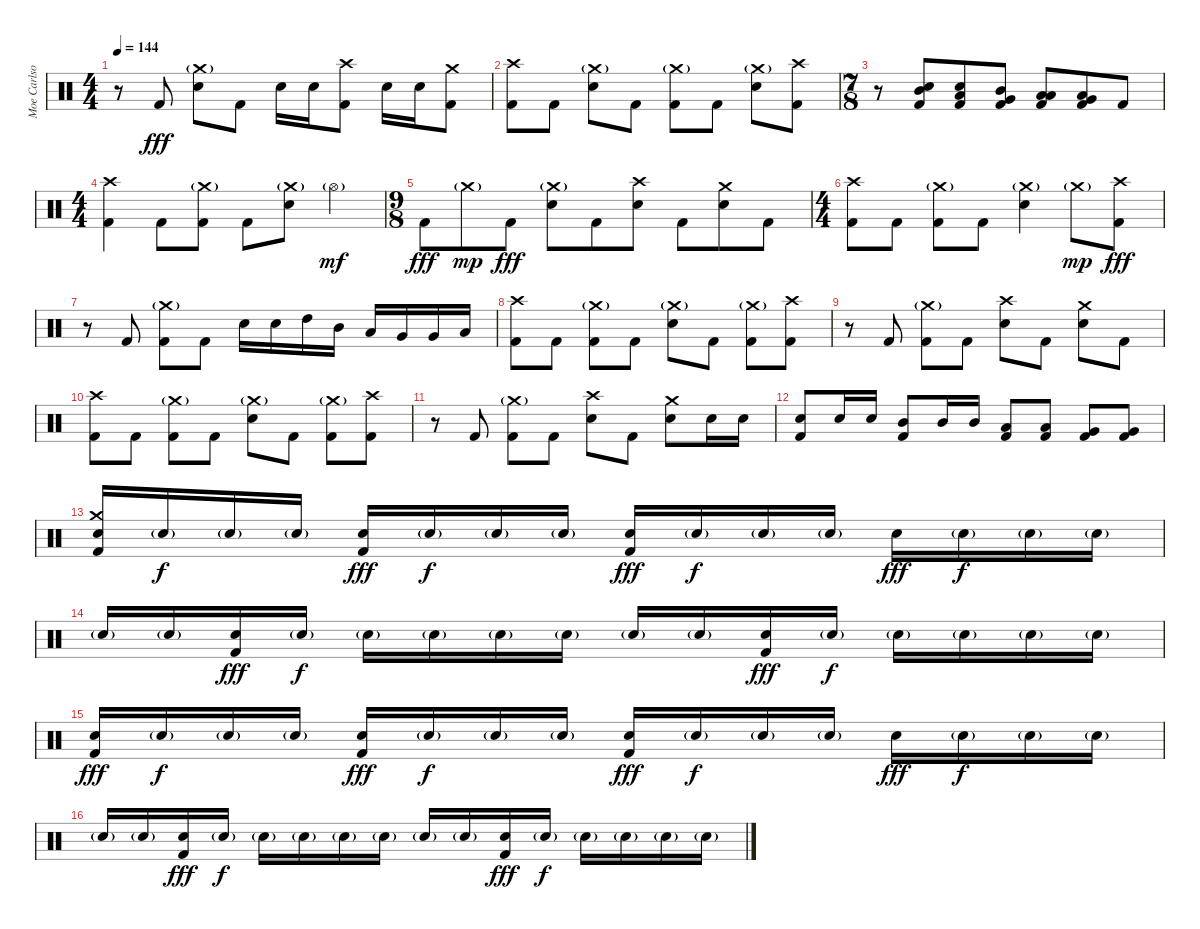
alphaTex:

\track ("Moe Carlson" "Moe Carlso") {instrument percussion}
\staff {score}
\articulation defaults
\ts (4 4)
\tempo 144
\clef neutral
\ks c
r.8{dy fff} "Kick (hit) 2".8 ("Crash medium (hit)"{g} "Electric Snare (hit)").8 "Kick (hit) 2".8 "Electric Snare (hit)".16 "Electric Snare (hit)".16 ("Crash high (hit)" "Kick (hit) 2").8 "Electric Snare (hit)".16 "Electric Snare (hit)".16 ("Crash medium (hit)" "Kick (hit) 2").8 |
("Crash high (hit)" "Kick (hit) 2").8 "Kick (hit) 2".8 ("Crash medium (hit)"{g} "Electric Snare (hit)").8 "Kick (hit) 2".8 ("Crash medium (hit)"{g} "Kick (hit) 2").8 "Kick (hit) 2".8 ("Crash medium (hit)"{g} "Electric Snare (hit)").8 ("Crash high (hit)" "Kick (hit) 2").8 |
\ts (7 8)
r.8 ("Electric Snare (hit)" "Mid Tom (hit)" "Kick (hit) 2").8 ("Electric Snare (hit)" "Low Tom (hit)" "Kick (hit) 2").8 ("Mid Tom (hit)" "Very Low Tom (hit)" "Kick (hit) 2").8 ("Low Tom (hit)" "Low Floor Tom (hit)" "Kick (hit) 2").8 ("Very Low Tom (hit)" "Low Floor Tom (hit)" "Kick (hit) 2").8 "Kick (hit) 2".8 |
\ts (4 4)
("Crash high (hit)" "Kick (hit) 2").4 "Kick (hit) 2".8 ("Crash medium (hit)"{g} "Kick (hit) 2").8 "Kick (hit) 2".8 ("Crash medium (hit)"{g} "Electric Snare (hit)").8 "Hi-Hat (open)"{g}.4{dy mf} |
\ts (9 8)
"Kick (hit) 2".8{dy fff} "Crash medium (hit)"{g}.8{dy mp} "Kick (hit) 2".8{dy fff} ("Crash medium (hit)"{g} "Electric Snare (hit)").8 "Kick (hit) 2".8 ("Crash high (hit)" "Electric Snare (hit)").8 "Kick (hit) 2".8 ("Crash medium (hit)" "Electric Snare (hit)").8 "Kick (hit) 2".8 |
\ts (4 4)
("Crash high (hit)" "Kick (hit) 2").8 "Kick (hit) 2".8 ("Crash medium (hit)"{g} "Kick (hit) 2").8 "Kick (hit) 2".8 ("Crash medium (hit)"{g} "Electric Snare (hit)").4 "Crash medium (hit)"{g}.8{dy mp} ("Crash high (hit)" "Kick (hit) 2").8{dy fff} |
r.8 "Kick (hit) 2".8 ("Crash medium (hit)"{g} "Kick (hit) 2").8 "Kick (hit) 2".8 "Electric Snare (hit)".16 "Electric Snare (hit)".16 "High Tom (hit)".16 "Mid Tom (hit)".16 "Low Tom (hit)".16 "Very Low Tom (hit)".16 "Very Low Tom (hit)".16 "Low Floor Tom (hit)".16 |
("Crash high (hit)" "Kick (hit) 2").8 "Kick (hit) 2".8 ("Crash medium (hit)"{g} "Kick (hit) 2").8 "Kick (hit) 2".8 ("Crash medium (hit)"{g} "Electric Snare (hit)").8 "Kick (hit) 2".8 ("Crash medium (hit)"{g} "Kick (hit) 2").8 ("Crash high (hit)" "Kick (hit) 2").8 |
r.8 "Kick (hit) 2".8 ("Crash medium (hit)"{g} "Kick (hit) 2").8 "Kick (hit) 2".8 ("Crash high (hit)" "Electric Snare (hit)").8 "Kick (hit) 2".8 ("Crash medium (hit)" "Electric Snare (hit)").8 "Kick (hit) 2".8 |
("Crash high (hit)" "Kick (hit) 2").8 "Kick (hit) 2".8 ("Crash medium (hit)"{g} "Kick (hit) 2").8 "Kick (hit) 2".8 ("Crash medium (hit)"{g} "Electric Snare (hit)").8 "Kick (hit) 2".8 ("Crash medium (hit)"{g} "Kick (hit) 2").8 ("Crash high (hit)" "Kick (hit) 2").8 |
r.8 "Kick (hit) 2".8 ("Crash medium (hit)"{g} "Kick (hit) 2").8 "Kick (hit) 2".8 ("Crash high (hit)" "Electric Snare (hit)").8 "Kick (hit) 2".8 ("Crash medium (hit)" "Electric Snare (hit)").8 "Electric Snare (hit)".16 "Electric Snare (hit)".16 |
("Electric Snare (hit)" "Kick (hit) 2").8 "Electric Snare (hit)".16 "Electric Snare (hit)".16 ("Mid Tom (hit)" "Kick (hit) 2").8 "Mid Tom (hit)".16 "Mid Tom (hit)".16 ("Low Tom (hit)" "Kick (hit) 2").8 ("Low Tom (hit)" "Kick (hit) 2").8 ("Very Low Tom (hit)" "Kick (hit) 2").8 ("Very Low Tom (hit)" "Kick (hit) 2").8 |
("Crash medium (hit)" "Electric Snare (hit)" "Kick (hit) 2").16 "Electric Snare (hit)"{g}.16{dy f} "Electric Snare (hit)"{g}.16 "Electric Snare (hit)"{g}.16 ("Electric Snare (hit)" "Kick (hit) 2").16{dy fff} "Electric Snare (hit)"{g}.16{dy f} "Electric Snare (hit)"{g}.16 "Electric Snare (hit)"{g}.16 ("Electric Snare (hit)" "Kick (hit) 2").16{dy fff} "Electric Snare (hit)"{g}.16{dy f} "Electric Snare (hit)"{g}.16 "Electric Snare (hit)"{g}.16 "Electric Snare (hit)".16{dy fff} "Electric Snare (hit)"{g}.16{dy f} "Electric Snare (hit)"{g}.16 "Electric Snare (hit)"{g}.16 |
"Electric Snare (hit)"{g}.16 "Electric Snare (hit)"{g}.16 ("Electric Snare (hit)" "Kick (hit) 2").16{dy fff} "Electric Snare (hit)"{g}.16{dy f} "Electric Snare (hit)"{g}.16 "Electric Snare (hit)"{g}.16 "Electric Snare (hit)"{g}.16 "Electric Snare (hit)"{g}.16 "Electric Snare (hit)"{g}.16 "Electric Snare (hit)"{g}.16 ("Electric Snare (hit)" "Kick (hit) 2").16{dy fff} "Electric Snare (hit)"{g}.16{dy f} "Electric Snare (hit)"{g}.16 "Electric Snare (hit)"{g}.16 "Electric Snare (hit)"{g}.16 "Electric Snare (hit)"{g}.16 |
("Electric Snare (hit)" "Kick (hit) 2").16{dy fff} "Electric Snare (hit)"{g}.16{dy f} "Electric Snare (hit)"{g}.16 "Electric Snare (hit)"{g}.16 ("Electric Snare (hit)" "Kick (hit) 2").16{dy fff} "Electric Snare (hit)"{g}.16{dy f} "Electric Snare (hit)"{g}.16 "Electric Snare (hit)"{g}.16 ("Electric Snare (hit)" "Kick (hit) 2").16{dy fff} "Electric Snare (hit)"{g}.16{dy f} "Electric Snare (hit)"{g}.16 "Electric Snare (hit)"{g}.16 "Electric Snare (hit)".16{dy fff} "Electric Snare (hit)"{g}.16{dy f} "Electric Snare (hit)"{g}.16 "Electric Snare (hit)"{g}.16 |
"Electric Snare (hit)"{g}.16 "Electric Snare (hit)"{g}.16 ("Electric Snare (hit)" "Kick (hit) 2").16{dy fff} "Electric Snare (hit)"{g}.16{dy f} "Electric Snare (hit)"{g}.16 "Electric Snare (hit)"{g}.16 "Electric Snare (hit)"{g}.16 "Electric Snare (hit)"{g}.16 "Electric Snare (hit)"{g}.16 "Electric Snare (hit)"{g}.16 ("Electric Snare (hit)" "Kick (hit) 2").16{dy fff} "Electric Snare (hit)"{g}.16{dy f} "Electric Snare (hit)"{g}.16 "Electric Snare (hit)"{g}.16 "Electric Snare (hit)"{g}.16 "Electric Snare (hit)"{g}.16
